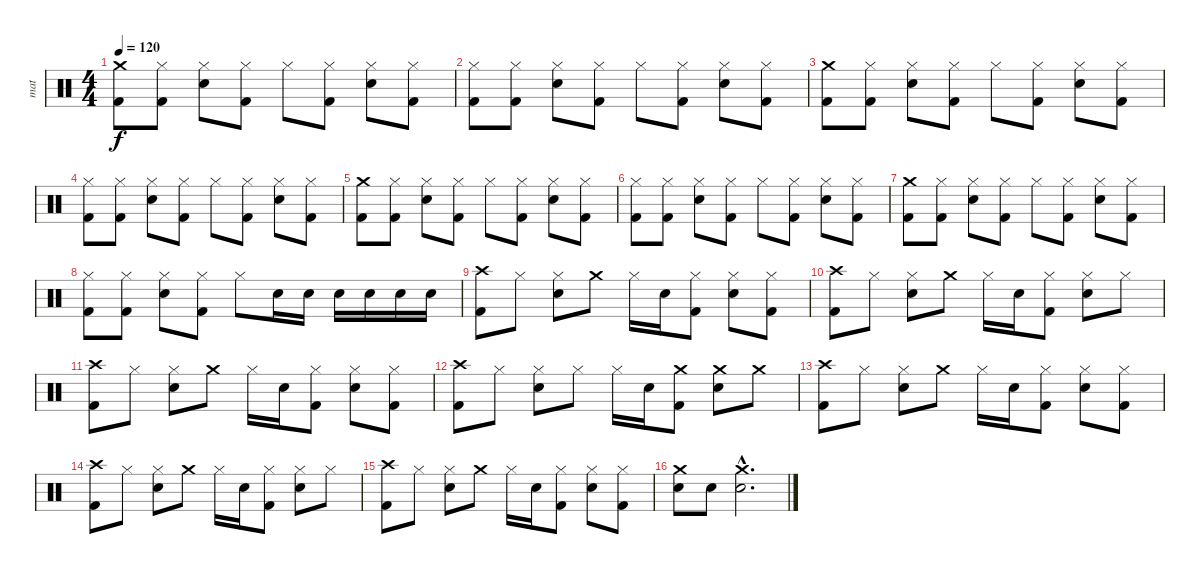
\track ("mat" "mat") {instrument percussion}
\staff {score}
\articulation defaults
\ts (4 4)
\tempo 120
\clef neutral
\ks c
("Kick (hit) 2" "Crash medium (hit)").8{dy f} ("Kick (hit) 2" "Hi-Hat (closed)").8 ("Snare (hit) 2" "Hi-Hat (closed)").8 ("Kick (hit) 2" "Hi-Hat (closed)").8 "Hi-Hat (closed)".8 ("Kick (hit) 2" "Hi-Hat (closed)").8 ("Snare (hit) 2" "Hi-Hat (closed)").8 ("Kick (hit) 2" "Hi-Hat (closed)").8 |
("Kick (hit) 2" "Hi-Hat (closed)").8 ("Kick (hit) 2" "Hi-Hat (closed)").8 ("Snare (hit) 2" "Hi-Hat (closed)").8 ("Kick (hit) 2" "Hi-Hat (closed)").8 "Hi-Hat (closed)".8 ("Kick (hit) 2" "Hi-Hat (closed)").8 ("Snare (hit) 2" "Hi-Hat (closed)").8 ("Kick (hit) 2" "Hi-Hat (closed)").8 |
("Kick (hit) 2" "Crash medium (hit)").8 ("Kick (hit) 2" "Hi-Hat (closed)").8 ("Snare (hit) 2" "Hi-Hat (closed)").8 ("Kick (hit) 2" "Hi-Hat (closed)").8 "Hi-Hat (closed)".8 ("Kick (hit) 2" "Hi-Hat (closed)").8 ("Snare (hit) 2" "Hi-Hat (closed)").8 ("Kick (hit) 2" "Hi-Hat (closed)").8 |
("Kick (hit) 2" "Hi-Hat (closed)").8 ("Kick (hit) 2" "Hi-Hat (closed)").8 ("Snare (hit) 2" "Hi-Hat (closed)").8 ("Kick (hit) 2" "Hi-Hat (closed)").8 "Hi-Hat (closed)".8 ("Kick (hit) 2" "Hi-Hat (closed)").8 ("Snare (hit) 2" "Hi-Hat (closed)").8 ("Kick (hit) 2" "Hi-Hat (closed)").8 |
("Kick (hit) 2" "Crash medium (hit)").8 ("Kick (hit) 2" "Hi-Hat (closed)").8 ("Snare (hit) 2" "Hi-Hat (closed)").8 ("Kick (hit) 2" "Hi-Hat (closed)").8 "Hi-Hat (closed)".8 ("Kick (hit) 2" "Hi-Hat (closed)").8 ("Snare (hit) 2" "Hi-Hat (closed)").8 ("Kick (hit) 2" "Hi-Hat (closed)").8 |
("Kick (hit) 2" "Hi-Hat (closed)").8 ("Kick (hit) 2" "Hi-Hat (closed)").8 ("Snare (hit) 2" "Hi-Hat (closed)").8 ("Kick (hit) 2" "Hi-Hat (closed)").8 "Hi-Hat (closed)".8 ("Kick (hit) 2" "Hi-Hat (closed)").8 ("Snare (hit) 2" "Hi-Hat (closed)").8 ("Kick (hit) 2" "Hi-Hat (closed)").8 |
("Kick (hit) 2" "Crash medium (hit)").8 ("Kick (hit) 2" "Hi-Hat (closed)").8 ("Snare (hit) 2" "Hi-Hat (closed)").8 ("Kick (hit) 2" "Hi-Hat (closed)").8 "Hi-Hat (closed)".8 ("Kick (hit) 2" "Hi-Hat (closed)").8 ("Snare (hit) 2" "Hi-Hat (closed)").8 ("Kick (hit) 2" "Hi-Hat (closed)").8 |
("Kick (hit) 2" "Hi-Hat (closed)").8 ("Kick (hit) 2" "Hi-Hat (closed)").8 ("Snare (hit) 2" "Hi-Hat (closed)").8 ("Kick (hit) 2" "Hi-Hat (closed)").8 "Hi-Hat (closed)".8 "Snare (hit) 2".16 "Snare (hit) 2".16 "Snare (hit) 2".16 "Snare (hit) 2".16 "Snare (hit) 2".16 "Snare (hit) 2".16 |
("Kick (hit) 2" "Crash high (hit)").8 "Hi-Hat (closed)".8 ("Snare (hit) 2" "Hi-Hat (closed)").8 "Crash medium (hit)".8 "Hi-Hat (closed)".16 "Snare (hit) 2".16 ("Kick (hit) 2" "Hi-Hat (closed)").8 ("Snare (hit) 2" "Hi-Hat (closed)").8 ("Kick (hit) 2" "Hi-Hat (closed)").8 |
("Kick (hit) 2" "Crash high (hit)").8 "Hi-Hat (closed)".8 ("Snare (hit) 2" "Hi-Hat (closed)").8 "Crash medium (hit)".8 "Hi-Hat (closed)".16 "Snare (hit) 2".16 ("Kick (hit) 2" "Hi-Hat (closed)").8 ("Snare (hit) 2" "Hi-Hat (closed)").8 "Hi-Hat (closed)".8 |
("Kick (hit) 2" "Crash high (hit)").8 "Hi-Hat (closed)".8 ("Snare (hit) 2" "Hi-Hat (closed)").8 "Crash medium (hit)".8 "Hi-Hat (closed)".16 "Snare (hit) 2".16 ("Kick (hit) 2" "Hi-Hat (closed)").8 ("Snare (hit) 2" "Hi-Hat (closed)").8 ("Kick (hit) 2" "Hi-Hat (closed)").8 |
("Kick (hit) 2" "Crash high (hit)").8 "Hi-Hat (closed)".8 ("Snare (hit) 2" "Hi-Hat (closed)").8 "Hi-Hat (closed)".8 "Hi-Hat (closed)".16 "Snare (hit) 2".16 ("Kick (hit) 2" "Crash medium (hit)").8 ("Snare (hit) 2" "Crash medium (hit)").8 "Crash medium (hit)".8 |
("Kick (hit) 2" "Crash high (hit)").8 "Hi-Hat (closed)".8 ("Snare (hit) 2" "Hi-Hat (closed)").8 "Crash medium (hit)".8 "Hi-Hat (closed)".16 "Snare (hit) 2".16 ("Kick (hit) 2" "Hi-Hat (closed)").8 ("Snare (hit) 2" "Hi-Hat (closed)").8 ("Kick (hit) 2" "Hi-Hat (closed)").8 |
("Kick (hit) 2" "Crash high (hit)").8 "Hi-Hat (closed)".8 ("Snare (hit) 2" "Hi-Hat (closed)").8 "Crash medium (hit)".8 "Hi-Hat (closed)".16 "Snare (hit) 2".16 ("Kick (hit) 2" "Hi-Hat (closed)").8 ("Snare (hit) 2" "Hi-Hat (closed)").8 "Hi-Hat (closed)".8 |
("Kick (hit) 2" "Crash high (hit)").8 "Hi-Hat (closed)".8 ("Snare (hit) 2" "Hi-Hat (closed)").8 "Crash medium (hit)".8 "Hi-Hat (closed)".16 "Snare (hit) 2".16 ("Kick (hit) 2" "Hi-Hat (closed)").8 ("Snare (hit) 2" "Hi-Hat (closed)").8 ("Kick (hit) 2" "Hi-Hat (closed)").8 |
("Snare (hit) 2" "Crash medium (hit)").8 "Snare (hit) 2".8 ("Snare (hit) 2"{hac} "Crash medium (hit)"{hac}).2{d}
